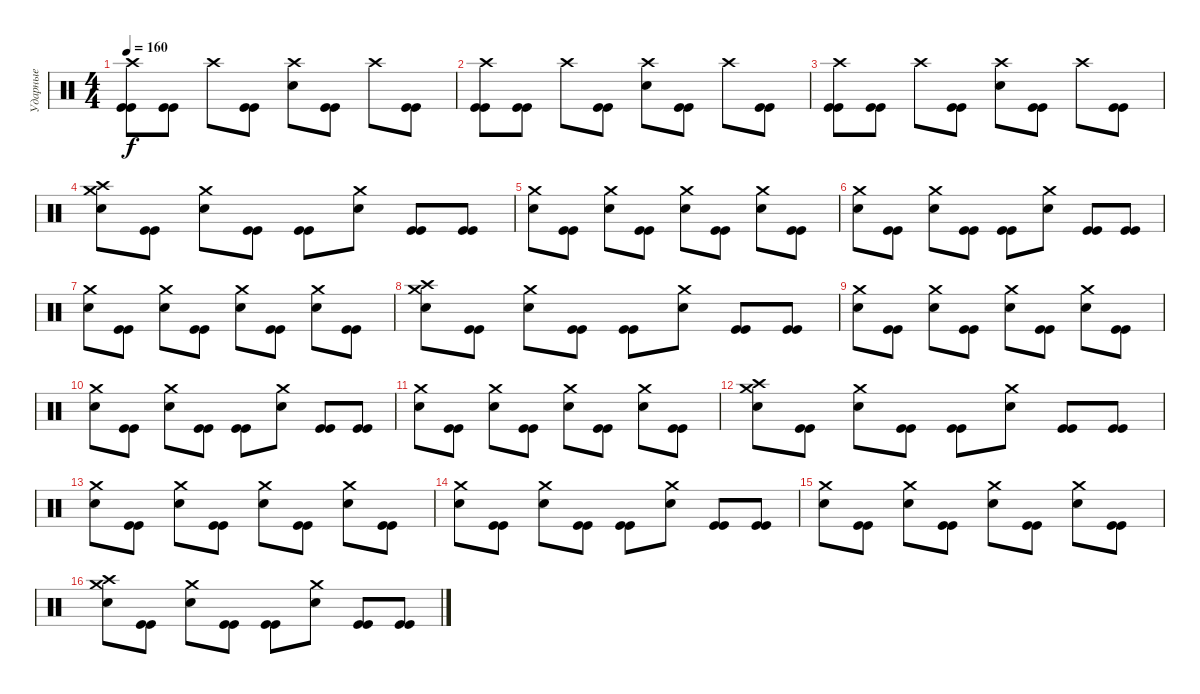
\track ("Ударные" "Ударные") {instrument percussion}
\staff {score}
\articulation defaults
\ts (4 4)
\tempo 160
\clef neutral
\ks c
("Crash high (hit)" "Kick (hit)" "Kick (hit)").8{dy f} ("Kick (hit)" "Kick (hit)").8 "Crash high (hit)".8 ("Kick (hit)" "Kick (hit)").8 ("Crash high (hit)" "Electric Snare (hit)").8 ("Kick (hit)" "Kick (hit)").8 "Crash high (hit)".8 ("Kick (hit)" "Kick (hit)").8 |
("Crash high (hit)" "Kick (hit)" "Kick (hit)").8 ("Kick (hit)" "Kick (hit)").8 "Crash high (hit)".8 ("Kick (hit)" "Kick (hit)").8 ("Crash high (hit)" "Electric Snare (hit)").8 ("Kick (hit)" "Kick (hit)").8 "Crash high (hit)".8 ("Kick (hit)" "Kick (hit)").8 |
("Crash high (hit)" "Kick (hit)" "Kick (hit)").8 ("Kick (hit)" "Kick (hit)").8 "Crash high (hit)".8 ("Kick (hit)" "Kick (hit)").8 ("Crash high (hit)" "Electric Snare (hit)").8 ("Kick (hit)" "Kick (hit)").8 "Crash high (hit)".8 ("Kick (hit)" "Kick (hit)").8 |
("Crash high (hit)" "Crash medium (hit)" "Electric Snare (hit)").8 ("Kick (hit)" "Kick (hit)").8 ("Crash medium (hit)" "Electric Snare (hit)").8 ("Kick (hit)" "Kick (hit)").8 ("Kick (hit)" "Kick (hit)").8 ("Crash medium (hit)" "Electric Snare (hit)").8 ("Kick (hit)" "Kick (hit)").8 ("Kick (hit)" "Kick (hit)").8 |
("Crash medium (hit)" "Electric Snare (hit)").8 ("Kick (hit)" "Kick (hit)").8 ("Crash medium (hit)" "Electric Snare (hit)").8 ("Kick (hit)" "Kick (hit)").8 ("Crash medium (hit)" "Electric Snare (hit)").8 ("Kick (hit)" "Kick (hit)").8 ("Crash medium (hit)" "Electric Snare (hit)").8 ("Kick (hit)" "Kick (hit)").8 |
("Crash medium (hit)" "Electric Snare (hit)").8 ("Kick (hit)" "Kick (hit)").8 ("Crash medium (hit)" "Electric Snare (hit)").8 ("Kick (hit)" "Kick (hit)").8 ("Kick (hit)" "Kick (hit)").8 ("Crash medium (hit)" "Electric Snare (hit)").8 ("Kick (hit)" "Kick (hit)").8 ("Kick (hit)" "Kick (hit)").8 |
("Crash medium (hit)" "Electric Snare (hit)").8 ("Kick (hit)" "Kick (hit)").8 ("Crash medium (hit)" "Electric Snare (hit)").8 ("Kick (hit)" "Kick (hit)").8 ("Crash medium (hit)" "Electric Snare (hit)").8 ("Kick (hit)" "Kick (hit)").8 ("Crash medium (hit)" "Electric Snare (hit)").8 ("Kick (hit)" "Kick (hit)").8 |
("Crash high (hit)" "Crash medium (hit)" "Electric Snare (hit)").8 ("Kick (hit)" "Kick (hit)").8 ("Crash medium (hit)" "Electric Snare (hit)").8 ("Kick (hit)" "Kick (hit)").8 ("Kick (hit)" "Kick (hit)").8 ("Crash medium (hit)" "Electric Snare (hit)").8 ("Kick (hit)" "Kick (hit)").8 ("Kick (hit)" "Kick (hit)").8 |
("Crash medium (hit)" "Electric Snare (hit)").8 ("Kick (hit)" "Kick (hit)").8 ("Crash medium (hit)" "Electric Snare (hit)").8 ("Kick (hit)" "Kick (hit)").8 ("Crash medium (hit)" "Electric Snare (hit)").8 ("Kick (hit)" "Kick (hit)").8 ("Crash medium (hit)" "Electric Snare (hit)").8 ("Kick (hit)" "Kick (hit)").8 |
("Crash medium (hit)" "Electric Snare (hit)").8 ("Kick (hit)" "Kick (hit)").8 ("Crash medium (hit)" "Electric Snare (hit)").8 ("Kick (hit)" "Kick (hit)").8 ("Kick (hit)" "Kick (hit)").8 ("Crash medium (hit)" "Electric Snare (hit)").8 ("Kick (hit)" "Kick (hit)").8 ("Kick (hit)" "Kick (hit)").8 |
("Crash medium (hit)" "Electric Snare (hit)").8 ("Kick (hit)" "Kick (hit)").8 ("Crash medium (hit)" "Electric Snare (hit)").8 ("Kick (hit)" "Kick (hit)").8 ("Crash medium (hit)" "Electric Snare (hit)").8 ("Kick (hit)" "Kick (hit)").8 ("Crash medium (hit)" "Electric Snare (hit)").8 ("Kick (hit)" "Kick (hit)").8 |
("Crash high (hit)" "Crash medium (hit)" "Electric Snare (hit)").8 ("Kick (hit)" "Kick (hit)").8 ("Crash medium (hit)" "Electric Snare (hit)").8 ("Kick (hit)" "Kick (hit)").8 ("Kick (hit)" "Kick (hit)").8 ("Crash medium (hit)" "Electric Snare (hit)").8 ("Kick (hit)" "Kick (hit)").8 ("Kick (hit)" "Kick (hit)").8 |
("Crash medium (hit)" "Electric Snare (hit)").8 ("Kick (hit)" "Kick (hit)").8 ("Crash medium (hit)" "Electric Snare (hit)").8 ("Kick (hit)" "Kick (hit)").8 ("Crash medium (hit)" "Electric Snare (hit)").8 ("Kick (hit)" "Kick (hit)").8 ("Crash medium (hit)" "Electric Snare (hit)").8 ("Kick (hit)" "Kick (hit)").8 |
("Crash medium (hit)" "Electric Snare (hit)").8 ("Kick (hit)" "Kick (hit)").8 ("Crash medium (hit)" "Electric Snare (hit)").8 ("Kick (hit)" "Kick (hit)").8 ("Kick (hit)" "Kick (hit)").8 ("Crash medium (hit)" "Electric Snare (hit)").8 ("Kick (hit)" "Kick (hit)").8 ("Kick (hit)" "Kick (hit)").8 |
("Crash medium (hit)" "Electric Snare (hit)").8 ("Kick (hit)" "Kick (hit)").8 ("Crash medium (hit)" "Electric Snare (hit)").8 ("Kick (hit)" "Kick (hit)").8 ("Crash medium (hit)" "Electric Snare (hit)").8 ("Kick (hit)" "Kick (hit)").8 ("Crash medium (hit)" "Electric Snare (hit)").8 ("Kick (hit)" "Kick (hit)").8 |
("Crash high (hit)" "Crash medium (hit)" "Electric Snare (hit)").8 ("Kick (hit)" "Kick (hit)").8 ("Crash medium (hit)" "Electric Snare (hit)").8 ("Kick (hit)" "Kick (hit)").8 ("Kick (hit)" "Kick (hit)").8 ("Crash medium (hit)" "Electric Snare (hit)").8 ("Kick (hit)" "Kick (hit)").8 ("Kick (hit)" "Kick (hit)").8
